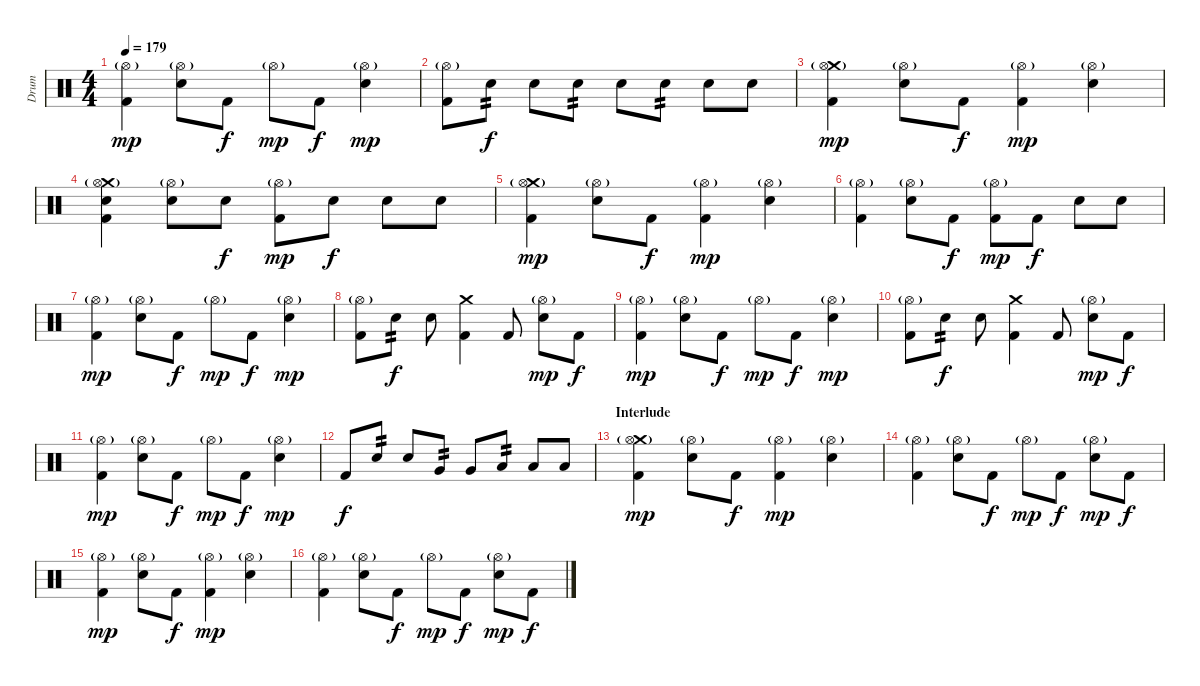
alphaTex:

\track ("Drum" "Drum") {instrument percussion}
\staff {score}
\articulation defaults
\ts (4 4)
\tempo 179
\clef neutral
\ks c
("Hi-Hat (open)"{g} "Kick (hit) 2").4{dy mp} ("Hi-Hat (open)"{g} "Electric Snare (hit)").8 "Kick (hit) 2".8{dy f} "Hi-Hat (open)"{g}.8{dy mp} "Kick (hit) 2".8{dy f} ("Hi-Hat (open)"{g} "Electric Snare (hit)").4{dy mp} |
("Hi-Hat (open)"{g} "Kick (hit) 2").8 "Electric Snare (hit)".8{tp 2 dy f} "Electric Snare (hit)".8 "Electric Snare (hit)".8{tp 2} "Electric Snare (hit)".8 "Electric Snare (hit)".8{tp 2} "Electric Snare (hit)".8 "Electric Snare (hit)".8 |
("Crash medium (hit)" "Hi-Hat (open)"{g} "Kick (hit) 2").4{dy mp} ("Hi-Hat (open)"{g} "Electric Snare (hit)").8 "Kick (hit) 2".8{dy f} ("Hi-Hat (open)"{g} "Kick (hit) 2").4{dy mp} ("Hi-Hat (open)"{g} "Electric Snare (hit)").4 |
("Crash medium (hit)" "Hi-Hat (open)"{g} "Electric Snare (hit)" "Kick (hit) 2").4 ("Hi-Hat (open)"{g} "Electric Snare (hit)").8 "Electric Snare (hit)".8{dy f} ("Hi-Hat (open)"{g} "Kick (hit) 2").8{dy mp} "Electric Snare (hit)".8{dy f} "Electric Snare (hit)".8 "Electric Snare (hit)".8 |
("Crash medium (hit)" "Hi-Hat (open)"{g} "Kick (hit) 2").4{dy mp} ("Hi-Hat (open)"{g} "Electric Snare (hit)").8 "Kick (hit) 2".8{dy f} ("Hi-Hat (open)"{g} "Kick (hit) 2").4{dy mp} ("Hi-Hat (open)"{g} "Electric Snare (hit)").4 |
("Hi-Hat (open)"{g} "Kick (hit) 2").4 ("Hi-Hat (open)"{g} "Electric Snare (hit)").8 "Kick (hit) 2".8{dy f} ("Hi-Hat (open)"{g} "Kick (hit) 2").8{dy mp} "Kick (hit) 2".8{dy f} "Electric Snare (hit)".8 "Electric Snare (hit)".8 |
("Hi-Hat (open)"{g} "Kick (hit) 2").4{dy mp} ("Hi-Hat (open)"{g} "Electric Snare (hit)").8 "Kick (hit) 2".8{dy f} "Hi-Hat (open)"{g}.8{dy mp} "Kick (hit) 2".8{dy f} ("Hi-Hat (open)"{g} "Electric Snare (hit)").4{dy mp} |
("Hi-Hat (open)"{g} "Kick (hit) 2").8 "Electric Snare (hit)".8{tp 2 dy f} "Electric Snare (hit)".8 ("Crash medium (hit)" "Kick (hit) 2").4 "Kick (hit) 2".8 ("Hi-Hat (open)"{g} "Electric Snare (hit)").8{dy mp} "Kick (hit) 2".8{dy f} |
("Hi-Hat (open)"{g} "Kick (hit) 2").4{dy mp} ("Hi-Hat (open)"{g} "Electric Snare (hit)").8 "Kick (hit) 2".8{dy f} "Hi-Hat (open)"{g}.8{dy mp} "Kick (hit) 2".8{dy f} ("Hi-Hat (open)"{g} "Electric Snare (hit)").4{dy mp} |
("Hi-Hat (open)"{g} "Kick (hit) 2").8 "Electric Snare (hit)".8{tp 2 dy f} "Electric Snare (hit)".8 ("Crash medium (hit)" "Kick (hit) 2").4 "Kick (hit) 2".8 ("Hi-Hat (open)"{g} "Electric Snare (hit)").8{dy mp} "Kick (hit) 2".8{dy f} |
("Hi-Hat (open)"{g} "Kick (hit) 2").4{dy mp} ("Hi-Hat (open)"{g} "Electric Snare (hit)").8 "Kick (hit) 2".8{dy f} "Hi-Hat (open)"{g}.8{dy mp} "Kick (hit) 2".8{dy f} ("Hi-Hat (open)"{g} "Electric Snare (hit)").4{dy mp} |
"Kick (hit) 2".8{dy f} "Electric Snare (hit)".8{tp 2} "Electric Snare (hit)".8 "Very Low Tom (hit)".8{tp 2} "Very Low Tom (hit)".8 "Low Floor Tom (hit)".8{tp 2} "Low Floor Tom (hit)".8 "Low Floor Tom (hit)".8 |
\section ("" "Interlude")
("Crash medium (hit)" "Hi-Hat (open)"{g} "Kick (hit) 2").4{dy mp} ("Hi-Hat (open)"{g} "Electric Snare (hit)").8 "Kick (hit) 2".8{dy f} ("Hi-Hat (open)"{g} "Kick (hit) 2").4{dy mp} ("Hi-Hat (open)"{g} "Electric Snare (hit)").4 |
("Hi-Hat (open)"{g} "Kick (hit) 2").4 ("Hi-Hat (open)"{g} "Electric Snare (hit)").8 "Kick (hit) 2".8{dy f} "Hi-Hat (open)"{g}.8{dy mp} "Kick (hit) 2".8{dy f} ("Hi-Hat (open)"{g} "Electric Snare (hit)").8{dy mp} "Kick (hit) 2".8{dy f} |
("Hi-Hat (open)"{g} "Kick (hit) 2").4{dy mp} ("Hi-Hat (open)"{g} "Electric Snare (hit)").8 "Kick (hit) 2".8{dy f} ("Hi-Hat (open)"{g} "Kick (hit) 2").4{dy mp} ("Hi-Hat (open)"{g} "Electric Snare (hit)").4 |
("Hi-Hat (open)"{g} "Kick (hit) 2").4 ("Hi-Hat (open)"{g} "Electric Snare (hit)").8 "Kick (hit) 2".8{dy f} "Hi-Hat (open)"{g}.8{dy mp} "Kick (hit) 2".8{dy f} ("Hi-Hat (open)"{g} "Electric Snare (hit)").8{dy mp} "Kick (hit) 2".8{dy f}
